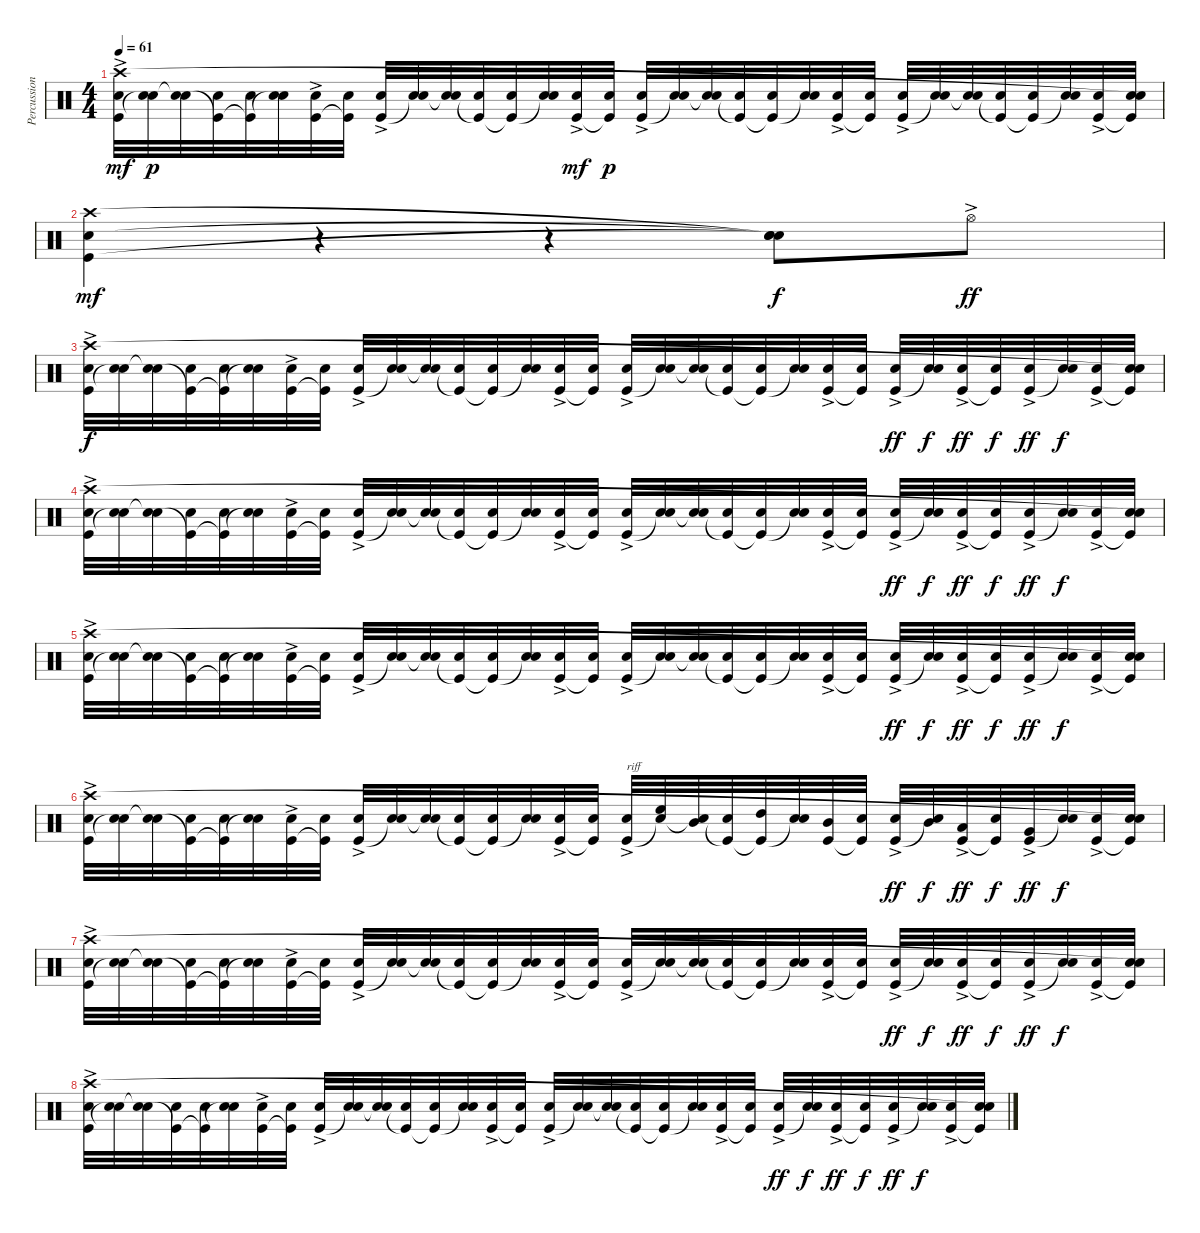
\track ("Percussion" "Percussion") {instrument percussion}
\staff {score}
\articulation defaults
\ts (4 4)
\tempo 61
\clef neutral
\ks c
("Snare (hit) 2" "Kick (hit)"{ac} "Crash high (hit)").32{dy mf} ("Snare (hit) 2" "Snare (hit)"{t}).32{dy p} ("Snare (hit) 2" "Snare (hit)"{t}).32 ("Snare (hit) 2" "Kick (hit)"{t}).32 ("Snare (hit) 2" "Kick (hit)"{t}).32 ("Snare (hit) 2" "Snare (hit)"{t}).32 ("Snare (hit) 2"{ac} "Kick (hit)").32 ("Snare (hit) 2" "Kick (hit)"{t}).32 ("Snare (hit) 2"{ac} "Kick (hit)").32 ("Snare (hit) 2" "Snare (hit)"{t}).32 ("Snare (hit) 2" "Snare (hit)"{t}).32 ("Snare (hit) 2" "Kick (hit)"{t}).32 ("Snare (hit) 2" "Kick (hit)"{t}).32 ("Snare (hit) 2" "Snare (hit)"{t}).32 ("Snare (hit) 2" "Kick (hit)"{ac}).32{dy mf} ("Snare (hit) 2" "Kick (hit)"{t}).32{dy p} ("Snare (hit) 2" "Kick (hit)"{ac}).32 ("Snare (hit) 2" "Snare (hit)"{t}).32 ("Snare (hit) 2" "Snare (hit)"{t}).32 ("Snare (hit) 2" "Kick (hit)"{t}).32 ("Snare (hit) 2" "Kick (hit)"{t}).32 ("Snare (hit) 2" "Snare (hit)"{t}).32 ("Snare (hit) 2"{ac} "Kick (hit)").32 ("Snare (hit) 2" "Kick (hit)"{t}).32 ("Snare (hit) 2"{ac} "Kick (hit)").32 ("Snare (hit) 2" "Snare (hit)"{t}).32 ("Snare (hit) 2" "Snare (hit)"{t}).32 ("Snare (hit) 2" "Kick (hit)"{t}).32 ("Snare (hit) 2" "Kick (hit)"{t}).32 ("Snare (hit) 2" "Snare (hit)"{t}).32 ("Snare (hit) 2" "Kick (hit)"{ac}).32 ("Snare (hit) 2" "Kick (hit)"{t} "Snare (hit)"{t}).32 |
("Snare (hit) 2" "Kick (hit)" "Crash high (hit)").4{dy mf} r.4 r.4 ("Snare (hit)"{t} "Snare (hit)"{t} "Snare (hit)"{t}).8{dy f} "Hi-Hat (open)"{ac}.8{dy ff} |
("Snare (hit) 2" "Kick (hit)"{ac} "Crash high (hit)").32{dy f} ("Snare (hit) 2" "Snare (hit)"{t}).32 ("Snare (hit) 2" "Snare (hit)"{t}).32 ("Snare (hit) 2" "Kick (hit)"{t}).32 ("Snare (hit) 2" "Kick (hit)"{t}).32 ("Snare (hit) 2" "Snare (hit)"{t}).32 ("Snare (hit) 2"{ac} "Kick (hit)").32 ("Snare (hit) 2" "Kick (hit)"{t}).32 ("Snare (hit) 2"{ac} "Kick (hit)").32 ("Snare (hit) 2" "Snare (hit)"{t}).32 ("Snare (hit) 2" "Snare (hit)"{t}).32 ("Snare (hit) 2" "Kick (hit)"{t}).32 ("Snare (hit) 2" "Kick (hit)"{t}).32 ("Snare (hit) 2" "Snare (hit)"{t}).32 ("Snare (hit) 2" "Kick (hit)"{ac}).32 ("Snare (hit) 2" "Kick (hit)"{t}).32 ("Snare (hit) 2" "Kick (hit)"{ac}).32 ("Snare (hit) 2" "Snare (hit)"{t}).32 ("Snare (hit) 2" "Snare (hit)"{t}).32 ("Snare (hit) 2" "Kick (hit)"{t}).32 ("Snare (hit) 2" "Kick (hit)"{t}).32 ("Snare (hit) 2" "Snare (hit)"{t}).32 ("Snare (hit) 2"{ac} "Kick (hit)").32 ("Snare (hit) 2" "Kick (hit)"{t}).32 ("Snare (hit) 2"{ac} "Kick (hit)"{ac}).32{dy ff} ("Snare (hit) 2" "Snare (hit)"{t}).32{dy f} ("Snare (hit) 2"{ac} "Kick (hit)"{ac}).32{dy ff} ("Snare (hit) 2" "Kick (hit)"{t}).32{dy f} ("Snare (hit) 2"{ac} "Kick (hit)"{ac}).32{dy ff} ("Snare (hit) 2" "Snare (hit)"{t}).32{dy f} ("Snare (hit) 2"{ac} "Kick (hit)").32 ("Snare (hit) 2" "Kick (hit)"{t} "Snare (hit)"{t}).32 |
("Snare (hit) 2" "Kick (hit)"{ac} "Crash high (hit)").32 ("Snare (hit) 2" "Snare (hit)"{t}).32 ("Snare (hit) 2" "Snare (hit)"{t}).32 ("Snare (hit) 2" "Kick (hit)"{t}).32 ("Snare (hit) 2" "Kick (hit)"{t}).32 ("Snare (hit) 2" "Snare (hit)"{t}).32 ("Snare (hit) 2"{ac} "Kick (hit)").32 ("Snare (hit) 2" "Kick (hit)"{t}).32 ("Snare (hit) 2"{ac} "Kick (hit)").32 ("Snare (hit) 2" "Snare (hit)"{t}).32 ("Snare (hit) 2" "Snare (hit)"{t}).32 ("Snare (hit) 2" "Kick (hit)"{t}).32 ("Snare (hit) 2" "Kick (hit)"{t}).32 ("Snare (hit) 2" "Snare (hit)"{t}).32 ("Snare (hit) 2" "Kick (hit)"{ac}).32 ("Snare (hit) 2" "Kick (hit)"{t}).32 ("Snare (hit) 2" "Kick (hit)"{ac}).32 ("Snare (hit) 2" "Snare (hit)"{t}).32 ("Snare (hit) 2" "Snare (hit)"{t}).32 ("Snare (hit) 2" "Kick (hit)"{t}).32 ("Snare (hit) 2" "Kick (hit)"{t}).32 ("Snare (hit) 2" "Snare (hit)"{t}).32 ("Snare (hit) 2"{ac} "Kick (hit)").32 ("Snare (hit) 2" "Kick (hit)"{t}).32 ("Snare (hit) 2"{ac} "Kick (hit)"{ac}).32{dy ff} ("Snare (hit) 2" "Snare (hit)"{t}).32{dy f} ("Snare (hit) 2" "Kick (hit)"{ac}).32{dy ff} ("Snare (hit) 2" "Kick (hit)"{t}).32{dy f} ("Snare (hit) 2" "Kick (hit)"{ac}).32{dy ff} ("Snare (hit) 2" "Snare (hit)"{t}).32{dy f} ("Snare (hit) 2" "Kick (hit)"{ac}).32 ("Snare (hit) 2" "Kick (hit)"{t} "Snare (hit)"{t}).32 |
("Snare (hit) 2" "Kick (hit)"{ac} "Crash high (hit)").32 ("Snare (hit) 2" "Snare (hit)"{t}).32 ("Snare (hit) 2" "Snare (hit)"{t}).32 ("Snare (hit) 2" "Kick (hit)"{t}).32 ("Snare (hit) 2" "Kick (hit)"{t}).32 ("Snare (hit) 2" "Snare (hit)"{t}).32 ("Snare (hit) 2"{ac} "Kick (hit)").32 ("Snare (hit) 2" "Kick (hit)"{t}).32 ("Snare (hit) 2"{ac} "Kick (hit)").32 ("Snare (hit) 2" "Snare (hit)"{t}).32 ("Snare (hit) 2" "Snare (hit)"{t}).32 ("Snare (hit) 2" "Kick (hit)"{t}).32 ("Snare (hit) 2" "Kick (hit)"{t}).32 ("Snare (hit) 2" "Snare (hit)"{t}).32 ("Snare (hit) 2" "Kick (hit)"{ac}).32 ("Snare (hit) 2" "Kick (hit)"{t}).32 ("Snare (hit) 2" "Kick (hit)"{ac}).32 ("Snare (hit) 2" "Snare (hit)"{t}).32 ("Snare (hit) 2" "Snare (hit)"{t}).32 ("Snare (hit) 2" "Kick (hit)"{t}).32 ("Snare (hit) 2" "Kick (hit)"{t}).32 ("Snare (hit) 2" "Snare (hit)"{t}).32 ("Snare (hit) 2"{ac} "Kick (hit)").32 ("Snare (hit) 2" "Kick (hit)"{t}).32 ("Snare (hit) 2"{ac} "Kick (hit)"{ac}).32{dy ff} ("Snare (hit) 2" "Snare (hit)"{t}).32{dy f} ("Snare (hit) 2" "Kick (hit)"{ac}).32{dy ff} ("Snare (hit) 2" "Kick (hit)"{t}).32{dy f} ("Snare (hit) 2" "Kick (hit)"{ac}).32{dy ff} ("Snare (hit) 2" "Snare (hit)"{t}).32{dy f} ("Snare (hit) 2" "Kick (hit)"{ac}).32 ("Snare (hit) 2" "Kick (hit)"{t} "Snare (hit)"{t}).32 |
("Snare (hit) 2" "Kick (hit)"{ac} "Crash high (hit)").32 ("Snare (hit) 2" "Snare (hit)"{t}).32 ("Snare (hit) 2" "Snare (hit)"{t}).32 ("Snare (hit) 2" "Kick (hit)"{t}).32 ("Snare (hit) 2" "Kick (hit)"{t}).32 ("Snare (hit) 2" "Snare (hit)"{t}).32 ("Snare (hit) 2"{ac} "Kick (hit)").32 ("Snare (hit) 2" "Kick (hit)"{t}).32 ("Snare (hit) 2"{ac} "Kick (hit)").32 ("Snare (hit) 2" "Snare (hit)"{t}).32 ("Snare (hit) 2" "Snare (hit)"{t}).32 ("Snare (hit) 2" "Kick (hit)"{t}).32 ("Snare (hit) 2" "Kick (hit)"{t}).32 ("Snare (hit) 2" "Snare (hit)"{t}).32 ("Snare (hit) 2" "Kick (hit)"{ac}).32 ("Snare (hit) 2" "Kick (hit)"{t}).32 ("Snare (hit) 2" "Kick (hit)"{ac}).32{txt "riff"} ("High Floor Tom (hit)" "Snare (hit)"{t}).32 ("Mid Tom (hit)" "Snare (hit)"{t}).32 ("Snare (hit) 2" "Kick (hit)"{t}).32 ("High Tom (hit)" "Kick (hit)"{t}).32 ("Snare (hit) 2" "Snare (hit)"{t}).32 ("Mid Tom (hit)" "Kick (hit)").32 ("Snare (hit) 2" "Kick (hit)"{t}).32 ("Snare (hit) 2"{ac} "Kick (hit)"{ac}).32{dy ff} ("Mid Tom (hit)" "Snare (hit)"{t}).32{dy f} ("Low Tom (hit)" "Kick (hit)"{ac}).32{dy ff} ("Snare (hit) 2" "Kick (hit)"{t}).32{dy f} ("Very Low Tom (hit)" "Kick (hit)"{ac}).32{dy ff} ("Snare (hit) 2" "Snare (hit)"{t}).32{dy f} ("Snare (hit) 2" "Kick (hit)"{ac}).32 ("Snare (hit) 2" "Kick (hit)"{t} "Snare (hit)"{t}).32 |
("Snare (hit) 2" "Kick (hit)"{ac} "Crash high (hit)").32 ("Snare (hit) 2" "Snare (hit)"{t}).32 ("Snare (hit) 2" "Snare (hit)"{t}).32 ("Snare (hit) 2" "Kick (hit)"{t}).32 ("Snare (hit) 2" "Kick (hit)"{t}).32 ("Snare (hit) 2" "Snare (hit)"{t}).32 ("Snare (hit) 2"{ac} "Kick (hit)").32 ("Snare (hit) 2" "Kick (hit)"{t}).32 ("Snare (hit) 2"{ac} "Kick (hit)").32 ("Snare (hit) 2" "Snare (hit)"{t}).32 ("Snare (hit) 2" "Snare (hit)"{t}).32 ("Snare (hit) 2" "Kick (hit)"{t}).32 ("Snare (hit) 2" "Kick (hit)"{t}).32 ("Snare (hit) 2" "Snare (hit)"{t}).32 ("Snare (hit) 2" "Kick (hit)"{ac}).32 ("Snare (hit) 2" "Kick (hit)"{t}).32 ("Snare (hit) 2" "Kick (hit)"{ac}).32 ("Snare (hit) 2" "Snare (hit)"{t}).32 ("Snare (hit) 2" "Snare (hit)"{t}).32 ("Snare (hit) 2" "Kick (hit)"{t}).32 ("Snare (hit) 2" "Kick (hit)"{t}).32 ("Snare (hit) 2" "Snare (hit)"{t}).32 ("Snare (hit) 2"{ac} "Kick (hit)").32 ("Snare (hit) 2" "Kick (hit)"{t}).32 ("Snare (hit) 2"{ac} "Kick (hit)"{ac}).32{dy ff} ("Snare (hit) 2" "Snare (hit)"{t}).32{dy f} ("Snare (hit) 2" "Kick (hit)"{ac}).32{dy ff} ("Snare (hit) 2" "Kick (hit)"{t}).32{dy f} ("Snare (hit) 2" "Kick (hit)"{ac}).32{dy ff} ("Snare (hit) 2" "Snare (hit)"{t}).32{dy f} ("Snare (hit) 2" "Kick (hit)"{ac}).32 ("Snare (hit) 2" "Kick (hit)"{t} "Snare (hit)"{t}).32 |
("Snare (hit) 2" "Kick (hit)"{ac} "Crash high (hit)").32 ("Snare (hit) 2" "Snare (hit)"{t}).32 ("Snare (hit) 2" "Snare (hit)"{t}).32 ("Snare (hit) 2" "Kick (hit)"{t}).32 ("Snare (hit) 2" "Kick (hit)"{t}).32 ("Snare (hit) 2" "Snare (hit)"{t}).32 ("Snare (hit) 2"{ac} "Kick (hit)").32 ("Snare (hit) 2" "Kick (hit)"{t}).32 ("Snare (hit) 2"{ac} "Kick (hit)").32 ("Snare (hit) 2" "Snare (hit)"{t}).32 ("Snare (hit) 2" "Snare (hit)"{t}).32 ("Snare (hit) 2" "Kick (hit)"{t}).32 ("Snare (hit) 2" "Kick (hit)"{t}).32 ("Snare (hit) 2" "Snare (hit)"{t}).32 ("Snare (hit) 2" "Kick (hit)"{ac}).32 ("Snare (hit) 2" "Kick (hit)"{t}).32 ("Snare (hit) 2" "Kick (hit)"{ac}).32 ("Snare (hit) 2" "Snare (hit)"{t}).32 ("Snare (hit) 2" "Snare (hit)"{t}).32 ("Snare (hit) 2" "Kick (hit)"{t}).32 ("Snare (hit) 2" "Kick (hit)"{t}).32 ("Snare (hit) 2" "Snare (hit)"{t}).32 ("Snare (hit) 2"{ac} "Kick (hit)").32 ("Snare (hit) 2" "Kick (hit)"{t}).32 ("Snare (hit) 2"{ac} "Kick (hit)"{ac}).32{dy ff} ("Snare (hit) 2" "Snare (hit)"{t}).32{dy f} ("Snare (hit) 2" "Kick (hit)"{ac}).32{dy ff} ("Snare (hit) 2" "Kick (hit)"{t}).32{dy f} ("Snare (hit) 2" "Kick (hit)"{ac}).32{dy ff} ("Snare (hit) 2" "Snare (hit)"{t}).32{dy f} ("Snare (hit) 2" "Kick (hit)"{ac}).32 ("Snare (hit) 2" "Kick (hit)"{t} "Snare (hit)"{t}).32
